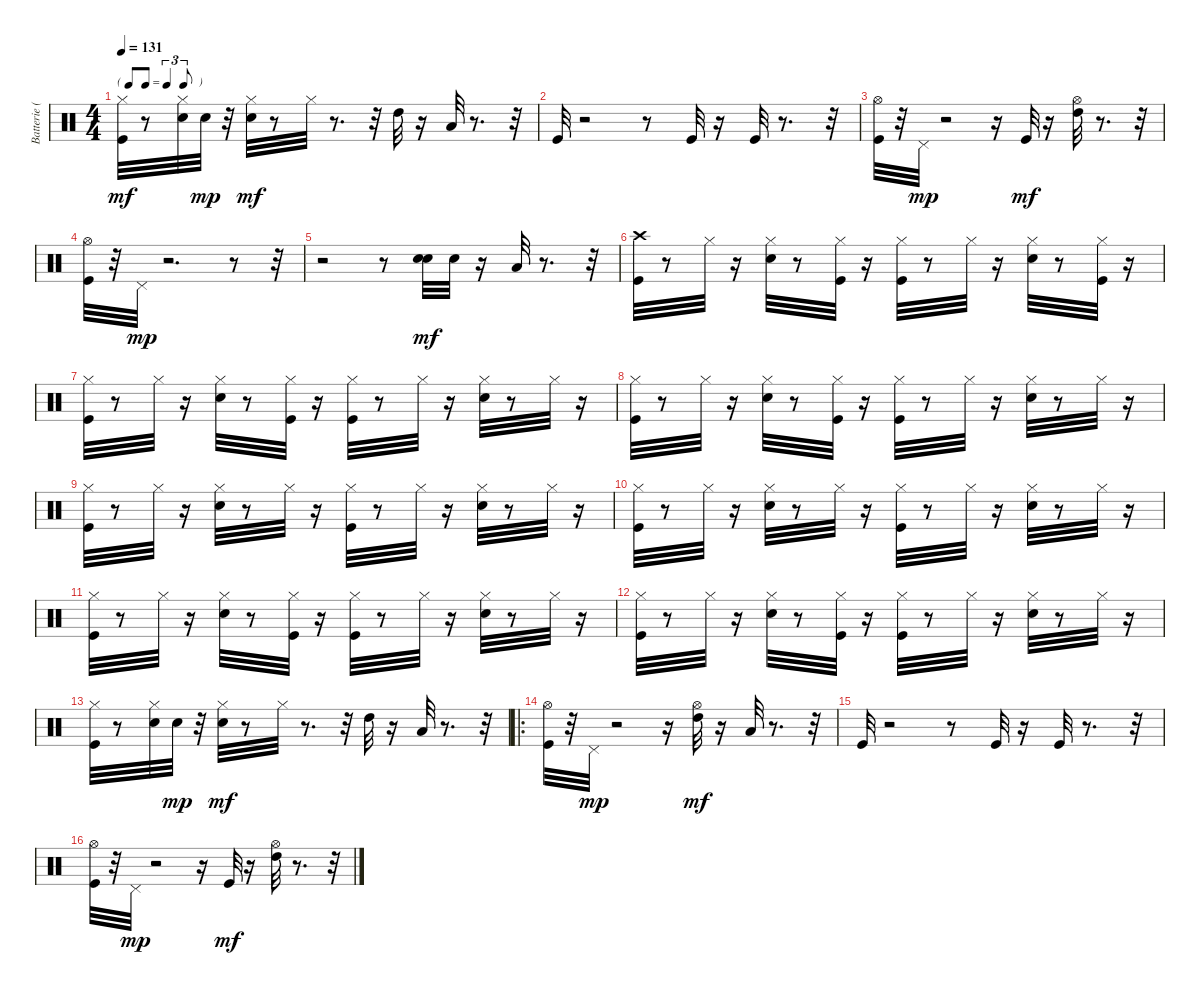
\track ("Batterie (midi)" "Batterie (") {instrument percussion}
\staff {score}
\articulation defaults
\ts (4 4)
\tf triplet8th
\tempo 131
\clef neutral
\ks c
("Kick (hit)" "Hi-Hat (closed)").32{dy mf} r.8 ("Electric Snare (hit)" "Hi-Hat (closed)").32 "Electric Snare (hit)".32{dy mp} r.32 ("Electric Snare (hit)" "Hi-Hat (closed)").32{dy mf} r.8 "Hi-Hat (closed)".32 r.8{d} r.32 "High Tom (hit)".32 r.16 "Low Tom (hit)".32 r.8{d} r.32 |
"Kick (hit)".32 r.2 r.8 "Kick (hit)".32 r.16 "Kick (hit)".32 r.8{d} r.32 |
("Kick (hit)" "Hi-Hat (open)").32 r.32 "Pedal Hi-Hat (hit)".32{dy mp} r.2 r.16 "Kick (hit)".32{dy mf} r.16 ("High Tom (hit)" "Hi-Hat (open)").32 r.8{d} r.32 |
("Kick (hit)" "Hi-Hat (open)").32 r.32 "Pedal Hi-Hat (hit)".32{dy mp} r.2{d} r.8 r.32 |
r.2 r.8 ("Electric Snare (hit)" "Electric Snare (hit)").32{dy mf} "Electric Snare (hit)".32 r.16 "Low Tom (hit)".32 r.8{d} r.32 |
("Kick (hit)" "Crash high (hit)").32 r.8 "Hi-Hat (closed)".32 r.16 ("Electric Snare (hit)" "Hi-Hat (closed)").32 r.8 ("Kick (hit)" "Hi-Hat (closed)").32 r.16 ("Kick (hit)" "Hi-Hat (closed)").32 r.8 "Hi-Hat (closed)".32 r.16 ("Electric Snare (hit)" "Hi-Hat (closed)").32 r.8 ("Kick (hit)" "Hi-Hat (closed)").32 r.16 |
("Kick (hit)" "Hi-Hat (closed)").32 r.8 "Hi-Hat (closed)".32 r.16 ("Electric Snare (hit)" "Hi-Hat (closed)").32 r.8 ("Kick (hit)" "Hi-Hat (closed)").32 r.16 ("Kick (hit)" "Hi-Hat (closed)").32 r.8 "Hi-Hat (closed)".32 r.16 ("Electric Snare (hit)" "Hi-Hat (closed)").32 r.8 "Hi-Hat (closed)".32 r.16 |
("Kick (hit)" "Hi-Hat (closed)").32 r.8 "Hi-Hat (closed)".32 r.16 ("Electric Snare (hit)" "Hi-Hat (closed)").32 r.8 ("Kick (hit)" "Hi-Hat (closed)").32 r.16 ("Kick (hit)" "Hi-Hat (closed)").32 r.8 "Hi-Hat (closed)".32 r.16 ("Electric Snare (hit)" "Hi-Hat (closed)").32 r.8 "Hi-Hat (closed)".32 r.16 |
("Kick (hit)" "Hi-Hat (closed)").32 r.8 "Hi-Hat (closed)".32 r.16 ("Electric Snare (hit)" "Hi-Hat (closed)").32 r.8 "Hi-Hat (closed)".32 r.16 ("Kick (hit)" "Hi-Hat (closed)").32 r.8 "Hi-Hat (closed)".32 r.16 ("Electric Snare (hit)" "Hi-Hat (closed)").32 r.8 "Hi-Hat (closed)".32 r.16 |
("Kick (hit)" "Hi-Hat (closed)").32 r.8 "Hi-Hat (closed)".32 r.16 ("Electric Snare (hit)" "Hi-Hat (closed)").32 r.8 "Hi-Hat (closed)".32 r.16 ("Kick (hit)" "Hi-Hat (closed)").32 r.8 "Hi-Hat (closed)".32 r.16 ("Electric Snare (hit)" "Hi-Hat (closed)").32 r.8 "Hi-Hat (closed)".32 r.16 |
("Kick (hit)" "Hi-Hat (closed)").32 r.8 "Hi-Hat (closed)".32 r.16 ("Electric Snare (hit)" "Hi-Hat (closed)").32 r.8 ("Kick (hit)" "Hi-Hat (closed)").32 r.16 ("Kick (hit)" "Hi-Hat (closed)").32 r.8 "Hi-Hat (closed)".32 r.16 ("Electric Snare (hit)" "Hi-Hat (closed)").32 r.8 "Hi-Hat (closed)".32 r.16 |
("Kick (hit)" "Hi-Hat (closed)").32 r.8 "Hi-Hat (closed)".32 r.16 ("Electric Snare (hit)" "Hi-Hat (closed)").32 r.8 ("Kick (hit)" "Hi-Hat (closed)").32 r.16 ("Kick (hit)" "Hi-Hat (closed)").32 r.8 "Hi-Hat (closed)".32 r.16 ("Electric Snare (hit)" "Hi-Hat (closed)").32 r.8 "Hi-Hat (closed)".32 r.16 |
("Kick (hit)" "Hi-Hat (closed)").32 r.8 ("Electric Snare (hit)" "Hi-Hat (closed)").32 "Electric Snare (hit)".32{dy mp} r.32 ("Electric Snare (hit)" "Hi-Hat (closed)").32{dy mf} r.8 "Hi-Hat (closed)".32 r.8{d} r.32 "High Tom (hit)".32 r.16 "Low Tom (hit)".32 r.8{d} r.32 |
\ro
("Kick (hit)" "Hi-Hat (open)").32 r.32 "Pedal Hi-Hat (hit)".32{dy mp} r.2 r.16 ("High Tom (hit)" "Hi-Hat (open)").32{dy mf} r.16 "Low Tom (hit)".32 r.8{d} r.32 |
"Kick (hit)".32 r.2 r.8 "Kick (hit)".32 r.16 "Kick (hit)".32 r.8{d} r.32 |
("Kick (hit)" "Hi-Hat (open)").32 r.32 "Pedal Hi-Hat (hit)".32{dy mp} r.2 r.16 "Kick (hit)".32{dy mf} r.16 ("High Tom (hit)" "Hi-Hat (open)").32 r.8{d} r.32
